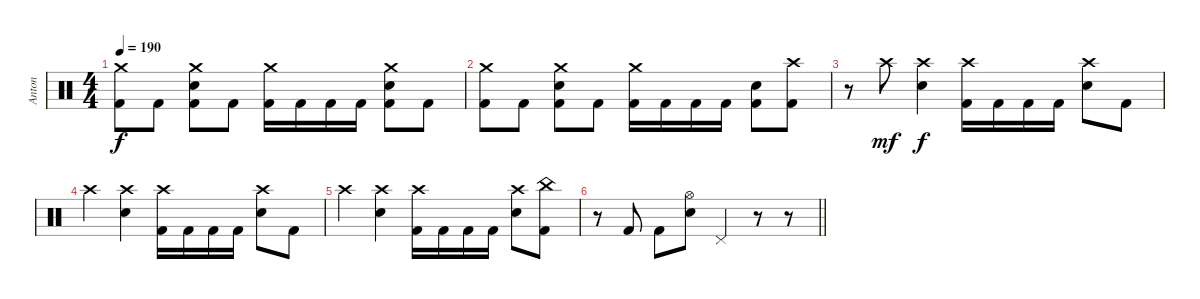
\track ("Anton" "Anton") {instrument percussion}
\staff {score}
\articulation defaults
\ts (4 4)
\tempo 190
\clef neutral
\ks c
("Crash medium (hit)" "Kick (hit) 2").8{dy f} "Kick (hit) 2".8 ("Crash medium (hit)" "Electric Snare (hit)" "Kick (hit) 2").8 "Kick (hit) 2".8 ("Crash medium (hit)" "Kick (hit) 2").16 "Kick (hit) 2".16 "Kick (hit) 2".16 "Kick (hit) 2".16 ("Crash medium (hit)" "Electric Snare (hit)" "Kick (hit) 2").8 "Kick (hit) 2".8 |
("Crash medium (hit)" "Kick (hit) 2").8 "Kick (hit) 2".8 ("Crash medium (hit)" "Electric Snare (hit)" "Kick (hit) 2").8 "Kick (hit) 2".8 ("Crash medium (hit)" "Kick (hit) 2").16 "Kick (hit) 2".16 "Kick (hit) 2".16 "Kick (hit) 2".16 ("Electric Snare (hit)" "Kick (hit) 2").8 ("Crash high (hit)" "Kick (hit) 2").8 |
r.8 "Crash high (hit)".8{dy mf} ("Crash high (hit)" "Electric Snare (hit)").4{dy f} ("Crash high (hit)" "Kick (hit) 2").16 "Kick (hit) 2".16 "Kick (hit) 2".16 "Kick (hit) 2".16 ("Crash high (hit)" "Electric Snare (hit)").8 "Kick (hit) 2".8 |
"Crash high (hit)".4 ("Crash high (hit)" "Electric Snare (hit)").4 ("Crash high (hit)" "Kick (hit) 2").16 "Kick (hit) 2".16 "Kick (hit) 2".16 "Kick (hit) 2".16 ("Crash high (hit)" "Electric Snare (hit)").8 "Kick (hit) 2".8 |
"Crash high (hit)".4 ("Crash high (hit)" "Electric Snare (hit)").4 ("Crash high (hit)" "Kick (hit) 2").16 "Kick (hit) 2".16 "Kick (hit) 2".16 "Kick (hit) 2".16 ("Crash high (hit)" "Electric Snare (hit)").8 ("China (hit)" "Kick (hit) 2").8 |
\barLineRight lightlight
r.8 "Kick (hit) 2".8 "Kick (hit) 2".8 ("Hi-Hat (open)" "Electric Snare (hit)").8 "Pedal Hi-Hat (hit)".4 r.8 r.8
